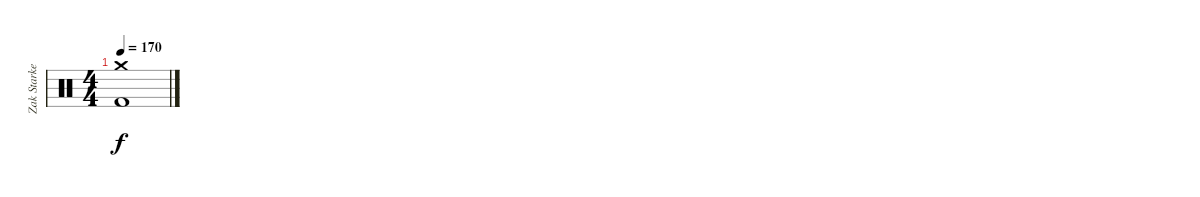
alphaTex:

\track ("Zak Starkey" "Zak Starke") {instrument percussion}
\staff {score}
\articulation defaults
\ts (4 4)
\tempo 170
\clef neutral
\ks c
("Crash medium (hit)" "Kick (hit) 2").1{dy f}
